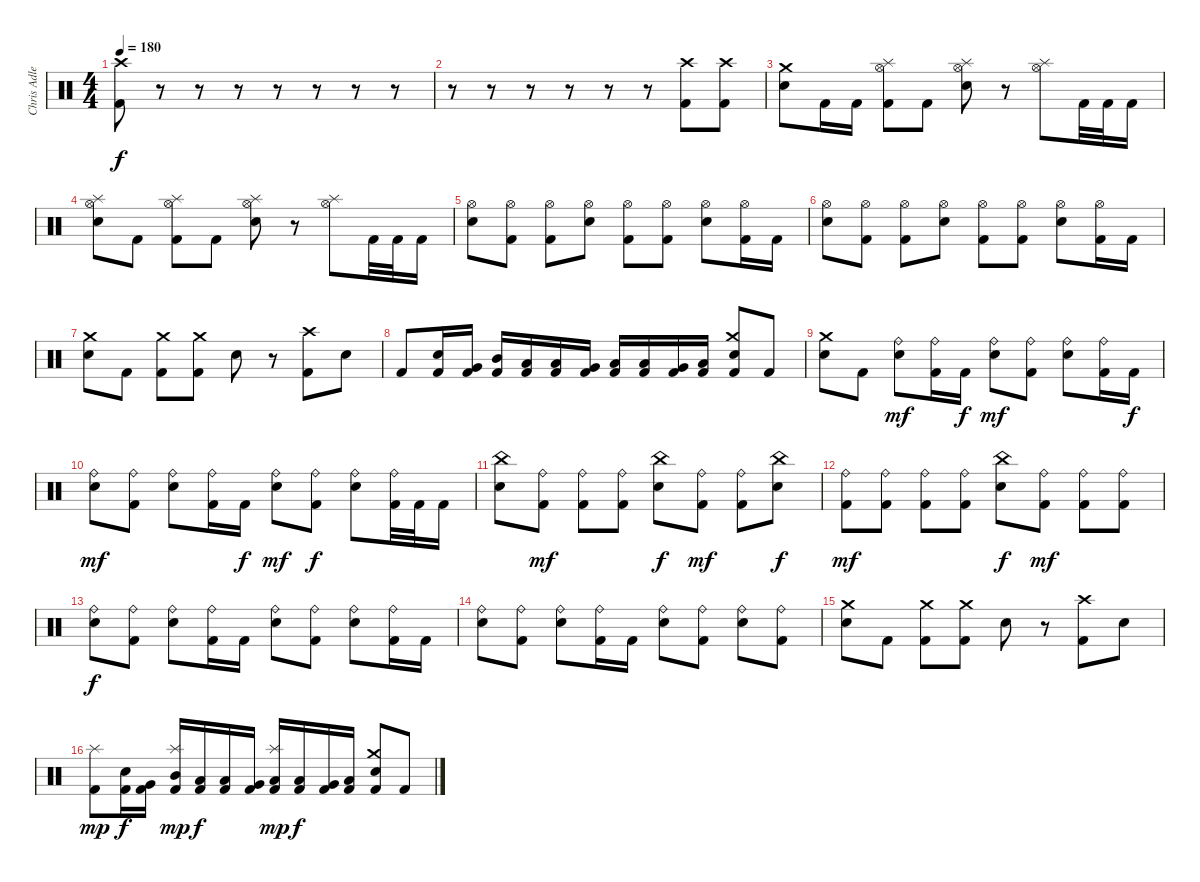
\track ("Chris Adler - Drums" "Chris Adle") {instrument percussion}
\staff {score}
\articulation defaults
\ts (4 4)
\tempo 180
\clef neutral
\ks c
("Crash high (hit)" "Kick (hit) 2").8{dy f} r.8 r.8 r.8 r.8 r.8 r.8 r.8 |
r.8 r.8 r.8 r.8 r.8 r.8 ("Crash high (hit)" "Kick (hit) 2").8 ("Crash high (hit)" "Kick (hit) 2").8 |
("Crash medium (hit)" "Snare (hit) 2").8 "Kick (hit) 2".16 "Kick (hit) 2".16 ("Splash (hit)" "Hi-Hat (open)" "Kick (hit) 2").8 "Kick (hit) 2".8 ("Splash (hit)" "Hi-Hat (open)" "Snare (hit) 2").8 r.8 ("Splash (hit)" "Hi-Hat (open)").8 "Kick (hit) 2".32 "Kick (hit) 2".32 "Kick (hit) 2".16 |
("Splash (hit)" "Hi-Hat (open)" "Snare (hit) 2").8 "Kick (hit) 2".8 ("Splash (hit)" "Hi-Hat (open)" "Kick (hit) 2").8 "Kick (hit) 2".8 ("Splash (hit)" "Hi-Hat (open)" "Snare (hit) 2").8 r.8 ("Splash (hit)" "Hi-Hat (open)").8 "Kick (hit) 2".32 "Kick (hit) 2".32 "Kick (hit) 2".16 |
("Hi-Hat (open)" "Snare (hit) 2").8 ("Hi-Hat (open)" "Kick (hit) 2").8 ("Hi-Hat (open)" "Kick (hit) 2").8 ("Hi-Hat (open)" "Snare (hit) 2").8 ("Hi-Hat (open)" "Kick (hit) 2").8 ("Hi-Hat (open)" "Kick (hit) 2").8 ("Hi-Hat (open)" "Snare (hit) 2").8 ("Hi-Hat (open)" "Kick (hit) 2").16 "Kick (hit) 2".16 |
("Hi-Hat (open)" "Snare (hit) 2").8 ("Hi-Hat (open)" "Kick (hit) 2").8 ("Hi-Hat (open)" "Kick (hit) 2").8 ("Hi-Hat (open)" "Snare (hit) 2").8 ("Hi-Hat (open)" "Kick (hit) 2").8 ("Hi-Hat (open)" "Kick (hit) 2").8 ("Hi-Hat (open)" "Snare (hit) 2").8 ("Hi-Hat (open)" "Kick (hit) 2").16 "Kick (hit) 2".16 |
("Crash medium (hit)" "Snare (hit) 2").8 "Kick (hit) 2".8 ("Crash medium (hit)" "Kick (hit) 2").8 ("Crash medium (hit)" "Kick (hit) 2").8 "Snare (hit) 2".8 r.8 ("Crash high (hit)" "Kick (hit) 2").8 "Snare (hit) 2".8 |
"Kick (hit) 2".8 ("Snare (hit) 2" "Kick (hit) 2").16 ("Very Low Tom (hit)" "Kick (hit) 2").16 ("Mid Tom (hit)" "Kick (hit) 2").16 ("Low Tom (hit)" "Kick (hit) 2").16 ("Low Floor Tom (hit)" "Kick (hit) 2").16 ("Very Low Tom (hit)" "Kick (hit) 2").16 ("Low Tom (hit)" "Kick (hit) 2").16 ("Low Floor Tom (hit)" "Kick (hit) 2").16 ("Very Low Tom (hit)" "Kick (hit) 2").16 ("Low Tom (hit)" "Kick (hit) 2").16 ("Crash medium (hit)" "Snare (hit) 2" "Kick (hit) 2").8 "Kick (hit) 2".8 |
("Crash medium (hit)" "Snare (hit) 2").8 "Kick (hit) 2".8 ("Ride (bell)" "Snare (hit) 2").8{dy mf} ("Ride (bell)" "Kick (hit) 2").16 "Kick (hit) 2".16{dy f} ("Ride (bell)" "Snare (hit) 2").8{dy mf} ("Ride (bell)" "Kick (hit) 2").8 ("Ride (bell)" "Snare (hit) 2").8 ("Ride (bell)" "Kick (hit) 2").16 "Kick (hit) 2".16{dy f} |
("Ride (bell)" "Snare (hit) 2").8{dy mf} ("Ride (bell)" "Kick (hit) 2").8 ("Ride (bell)" "Snare (hit) 2").8 ("Ride (bell)" "Kick (hit) 2").16 "Kick (hit) 2".16{dy f} ("Ride (bell)" "Snare (hit) 2").8{dy mf} ("Ride (bell)" "Kick (hit) 2").8{dy f} ("Ride (bell)" "Snare (hit) 2").8 ("Ride (bell)" "Kick (hit) 2").32 "Kick (hit) 2".32 "Kick (hit) 2".16 |
("China (hit)" "Snare (hit) 2").8 ("Ride (bell)" "Kick (hit) 2").8{dy mf} ("Ride (bell)" "Kick (hit) 2").8 ("Ride (bell)" "Kick (hit) 2").8 ("China (hit)" "Snare (hit) 2").8{dy f} ("Ride (bell)" "Kick (hit) 2").8{dy mf} ("Ride (bell)" "Kick (hit) 2").8 ("China (hit)" "Snare (hit) 2").8{dy f} |
("Ride (bell)" "Kick (hit) 2").8{dy mf} ("Ride (bell)" "Kick (hit) 2").8 ("Ride (bell)" "Kick (hit) 2").8 ("Ride (bell)" "Kick (hit) 2").8 ("China (hit)" "Snare (hit) 2").8{dy f} ("Ride (bell)" "Kick (hit) 2").8{dy mf} ("Ride (bell)" "Kick (hit) 2").8 ("Ride (bell)" "Kick (hit) 2").8 |
("Ride (bell)" "Snare (hit) 2").8{dy f} ("Ride (bell)" "Kick (hit) 2").8 ("Ride (bell)" "Snare (hit) 2").8 ("Ride (bell)" "Kick (hit) 2").16 "Kick (hit) 2".16 ("Ride (bell)" "Snare (hit) 2").8 ("Ride (bell)" "Kick (hit) 2").8 ("Ride (bell)" "Snare (hit) 2").8 ("Ride (bell)" "Kick (hit) 2").16 "Kick (hit) 2".16 |
("Ride (bell)" "Snare (hit) 2").8 ("Ride (bell)" "Kick (hit) 2").8 ("Ride (bell)" "Snare (hit) 2").8 ("Ride (bell)" "Kick (hit) 2").16 "Kick (hit) 2".16 ("Ride (bell)" "Snare (hit) 2").8 ("Ride (bell)" "Kick (hit) 2").8 ("Ride (bell)" "Snare (hit) 2").8 ("Ride (bell)" "Kick (hit) 2").8 |
("Crash medium (hit)" "Snare (hit) 2").8 "Kick (hit) 2".8 ("Crash medium (hit)" "Kick (hit) 2").8 ("Crash medium (hit)" "Kick (hit) 2").8 "Snare (hit) 2".8 r.8 ("Crash high (hit)" "Kick (hit) 2").8 "Snare (hit) 2".8 |
("Splash (hit)" "Kick (hit) 2").8{dy mp} ("Snare (hit) 2" "Kick (hit) 2").16{dy f} ("Very Low Tom (hit)" "Kick (hit) 2").16 ("Splash (hit)" "Mid Tom (hit)" "Kick (hit) 2").16{dy mp} ("Low Tom (hit)" "Kick (hit) 2").16{dy f} ("Low Floor Tom (hit)" "Kick (hit) 2").16 ("Very Low Tom (hit)" "Kick (hit) 2").16 ("Splash (hit)" "Low Tom (hit)" "Kick (hit) 2").16{dy mp} ("Low Floor Tom (hit)" "Kick (hit) 2").16{dy f} ("Very Low Tom (hit)" "Kick (hit) 2").16 ("Low Tom (hit)" "Kick (hit) 2").16 ("Crash medium (hit)" "Snare (hit) 2" "Kick (hit) 2").8 "Kick (hit) 2".8
